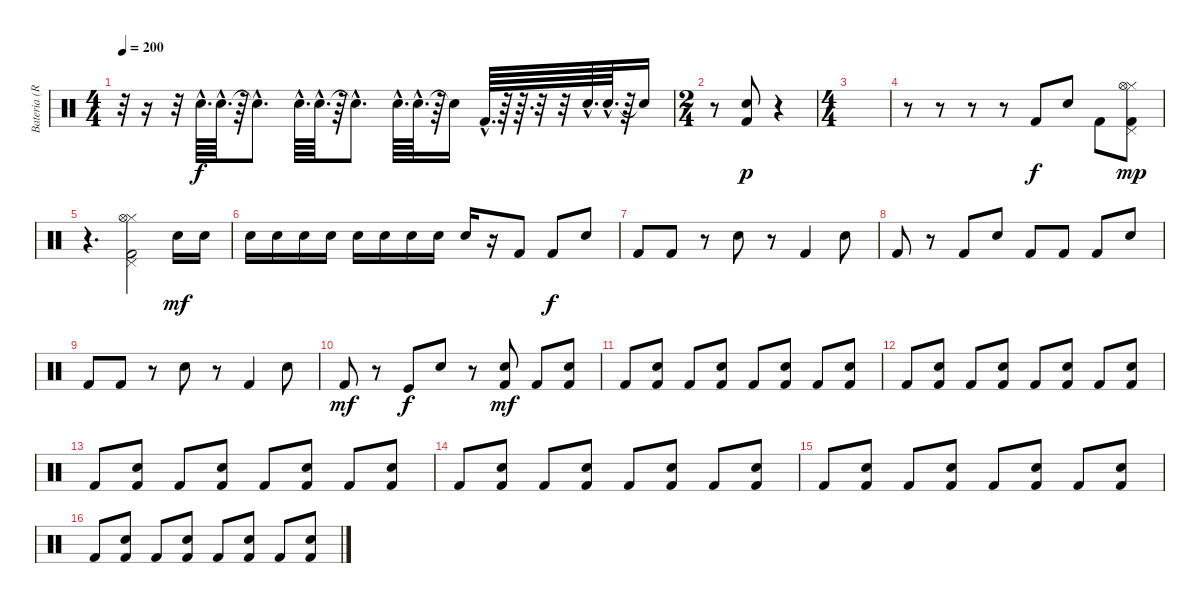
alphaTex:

\track ("Bateria (Ray)" "Bateria (R") {instrument percussion}
\staff {score}
\articulation defaults
\ts (4 4)
\tempo 200
\clef neutral
\ks c
r.32{dy f} r.16 r.32 "Electric Snare (hit)"{hac}.64{d} "Electric Snare (hit)"{hac}.64{d} r.64 "Snare (hit)"{hac t}.8{d} "Electric Snare (hit)"{hac}.64{d} "Electric Snare (hit)"{hac}.64{d} r.64 "Electric Snare (hit)"{hac t}.8{d} "Electric Snare (hit)"{hac}.64{d} "Electric Snare (hit)"{hac}.64{d} r.64 "Electric Snare (hit)"{t}.16 "Kick (hit) 2"{hac}.64{d} r.64 r.64{d} r.32 r.32 "Electric Snare (hit)"{hac}.64{d} "Electric Snare (hit)"{hac}.64{d} r.64 "Electric Snare (hit)"{t}.16 |
\ts (2 4)
r.8 ("Electric Snare (hit)" "Kick (hit) 2").8{dy p} r.4 |
\ts (4 4)
|
r.8 r.8 r.8 r.8 "Kick (hit) 2".8{dy f} "Electric Snare (hit)".8 "Kick (hit) 2".8 ("Pedal Hi-Hat (hit)" "Hi-Hat (closed)" "Kick (hit) 2" "Hi-Hat (open)").8{dy mp} |
r.4{d} ("Pedal Hi-Hat (hit)" "Hi-Hat (closed)" "Kick (hit) 2" "Hi-Hat (open)").2 "Electric Snare (hit)".16{dy mf} "Electric Snare (hit)".16 |
"Electric Snare (hit)".16 "Electric Snare (hit)".16 "Electric Snare (hit)".16 "Electric Snare (hit)".16 "Electric Snare (hit)".16 "Electric Snare (hit)".16 "Electric Snare (hit)".16 "Electric Snare (hit)".16 "Electric Snare (hit)".16 r.16 "Kick (hit) 2".8 "Kick (hit) 2".8{dy f} "Electric Snare (hit)".8 |
"Kick (hit) 2".8 "Kick (hit) 2".8 r.8 "Electric Snare (hit)".8 r.8 "Kick (hit) 2".4 "Electric Snare (hit)".8 |
"Kick (hit) 2".8 r.8 "Kick (hit) 2".8 "Electric Snare (hit)".8 "Kick (hit) 2".8 "Kick (hit) 2".8 "Kick (hit) 2".8 "Electric Snare (hit)".8 |
"Kick (hit) 2".8 "Kick (hit) 2".8 r.8 "Electric Snare (hit)".8 r.8 "Kick (hit) 2".4 "Electric Snare (hit)".8 |
"Kick (hit) 2".8{dy mf} r.8 "Kick (hit)".8{dy f} "Electric Snare (hit)".8 r.8 ("Electric Snare (hit)" "Kick (hit) 2").8{dy mf} "Kick (hit) 2".8 ("Electric Snare (hit)" "Kick (hit) 2").8 |
"Kick (hit) 2".8 ("Electric Snare (hit)" "Kick (hit) 2").8 "Kick (hit) 2".8 ("Electric Snare (hit)" "Kick (hit) 2").8 "Kick (hit) 2".8 ("Electric Snare (hit)" "Kick (hit) 2").8 "Kick (hit) 2".8 ("Electric Snare (hit)" "Kick (hit) 2").8 |
"Kick (hit) 2".8 ("Electric Snare (hit)" "Kick (hit) 2").8 "Kick (hit) 2".8 ("Electric Snare (hit)" "Kick (hit) 2").8 "Kick (hit) 2".8 ("Electric Snare (hit)" "Kick (hit) 2").8 "Kick (hit) 2".8 ("Electric Snare (hit)" "Kick (hit) 2").8 |
"Kick (hit) 2".8 ("Electric Snare (hit)" "Kick (hit) 2").8 "Kick (hit) 2".8 ("Electric Snare (hit)" "Kick (hit) 2").8 "Kick (hit) 2".8 ("Electric Snare (hit)" "Kick (hit) 2").8 "Kick (hit) 2".8 ("Electric Snare (hit)" "Kick (hit) 2").8 |
"Kick (hit) 2".8 ("Electric Snare (hit)" "Kick (hit) 2").8 "Kick (hit) 2".8 ("Electric Snare (hit)" "Kick (hit) 2").8 "Kick (hit) 2".8 ("Electric Snare (hit)" "Kick (hit) 2").8 "Kick (hit) 2".8 ("Electric Snare (hit)" "Kick (hit) 2").8 |
"Kick (hit) 2".8 ("Electric Snare (hit)" "Kick (hit) 2").8 "Kick (hit) 2".8 ("Electric Snare (hit)" "Kick (hit) 2").8 "Kick (hit) 2".8 ("Electric Snare (hit)" "Kick (hit) 2").8 "Kick (hit) 2".8 ("Electric Snare (hit)" "Kick (hit) 2").8 |
"Kick (hit) 2".8 ("Electric Snare (hit)" "Kick (hit) 2").8 "Kick (hit) 2".8 ("Electric Snare (hit)" "Kick (hit) 2").8 "Kick (hit) 2".8 ("Electric Snare (hit)" "Kick (hit) 2").8 "Kick (hit) 2".8 ("Electric Snare (hit)" "Kick (hit) 2").8
